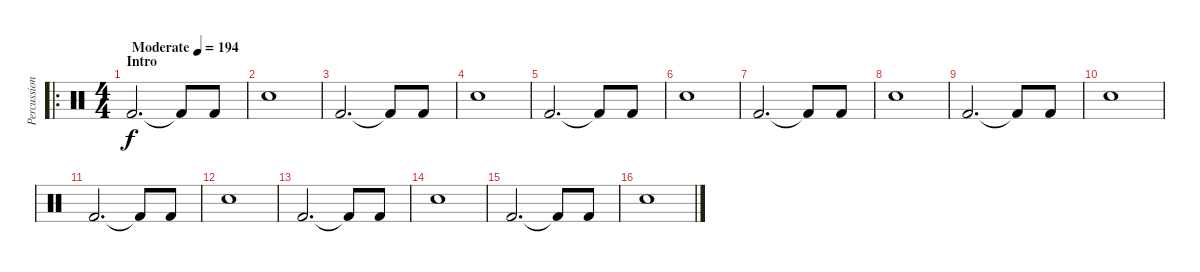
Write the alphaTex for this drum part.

\track ("Percussion" "Percussion") {instrument percussion}
\staff {score}
\articulation defaults
\ro
\ts (4 4)
\section ("" "Intro")
\tempo (194 "Moderate")
\clef neutral
\ks c "Kick (hit) 2".2{d dy f} "Kick (hit) 2"{t}.8 "Kick (hit) 2".8
|
"Snare (hit) 2".1 |
"Kick (hit) 2".2{d} "Kick (hit) 2"{t}.8 "Kick (hit) 2".8 |
"Snare (hit) 2".1 |
"Kick (hit) 2".2{d} "Kick (hit) 2"{t}.8 "Kick (hit) 2".8 |
"Snare (hit) 2".1 |
"Kick (hit) 2".2{d} "Kick (hit) 2"{t}.8 "Kick (hit) 2".8 |
"Snare (hit) 2".1 |
"Kick (hit) 2".2{d} "Kick (hit) 2"{t}.8 "Kick (hit) 2".8 |
"Snare (hit) 2".1 |
"Kick (hit) 2".2{d} "Kick (hit) 2"{t}.8 "Kick (hit) 2".8 |
"Snare (hit) 2".1 |
"Kick (hit) 2".2{d} "Kick (hit) 2"{t}.8 "Kick (hit) 2".8 |
"Snare (hit) 2".1 |
"Kick (hit) 2".2{d} "Kick (hit) 2"{t}.8 "Kick (hit) 2".8 |
"Snare (hit) 2".1
